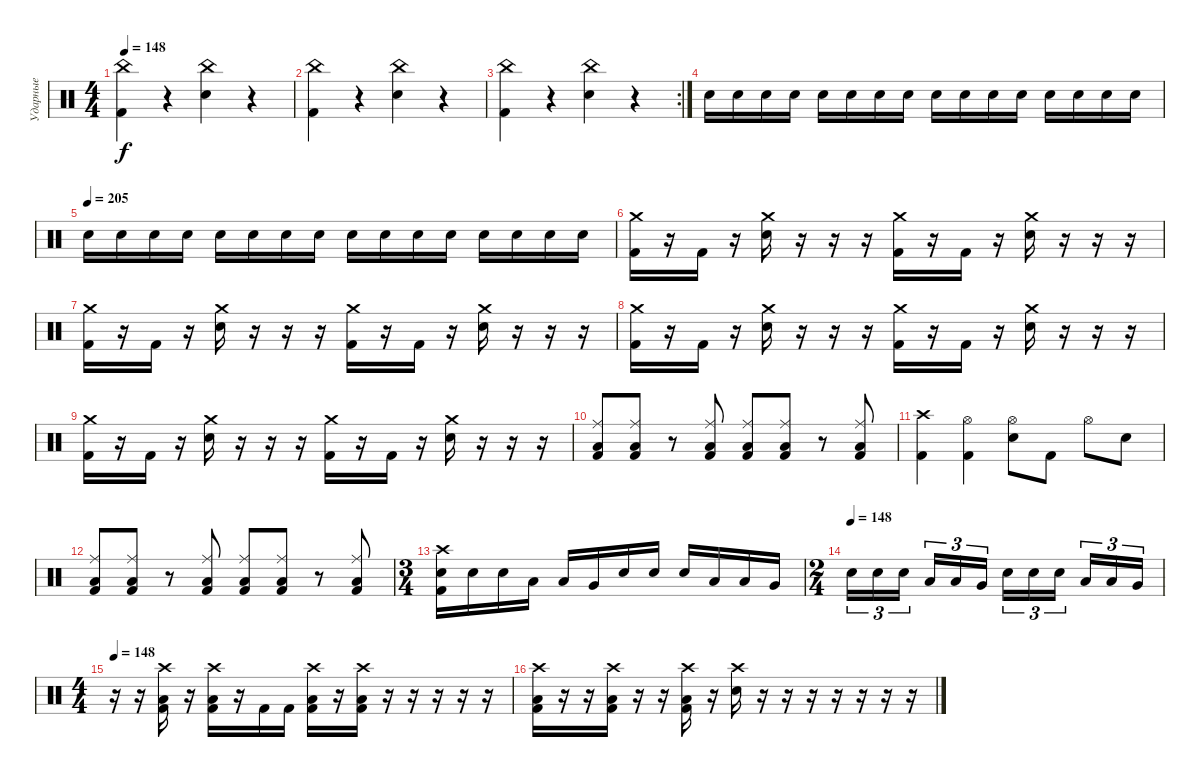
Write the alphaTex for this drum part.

\track ("Ударные" "Ударные") {instrument percussion}
\staff {score}
\articulation defaults
\ts (4 4)
\tempo 148
\clef neutral
\ks c
("China (hit)" "Kick (hit) 2").4{dy f} r.4 ("China (hit)" "Electric Snare (hit)").4 r.4 |
("China (hit)" "Kick (hit) 2").4 r.4 ("China (hit)" "Electric Snare (hit)").4 r.4 |
\rc 2
("China (hit)" "Kick (hit) 2").4 r.4 ("China (hit)" "Electric Snare (hit)").4 r.4 |
"Electric Snare (hit)".16 "Electric Snare (hit)".16 "Electric Snare (hit)".16 "Electric Snare (hit)".16 "Electric Snare (hit)".16 "Electric Snare (hit)".16 "Electric Snare (hit)".16 "Electric Snare (hit)".16 "Electric Snare (hit)".16 "Electric Snare (hit)".16 "Electric Snare (hit)".16 "Electric Snare (hit)".16 "Electric Snare (hit)".16 "Electric Snare (hit)".16 "Electric Snare (hit)".16 "Electric Snare (hit)".16 |
\tempo (205)
"Electric Snare (hit)".16 "Electric Snare (hit)".16 "Electric Snare (hit)".16 "Electric Snare (hit)".16 "Electric Snare (hit)".16 "Electric Snare (hit)".16 "Electric Snare (hit)".16 "Electric Snare (hit)".16 "Electric Snare (hit)".16 "Electric Snare (hit)".16 "Electric Snare (hit)".16 "Electric Snare (hit)".16 "Electric Snare (hit)".16 "Electric Snare (hit)".16 "Electric Snare (hit)".16 "Electric Snare (hit)".16 |
("Crash medium (hit)" "Kick (hit) 2").16 r.16 "Kick (hit) 2".16 r.16 ("Crash medium (hit)" "Electric Snare (hit)").16 r.16 r.16 r.16 ("Crash medium (hit)" "Kick (hit) 2").16 r.16 "Kick (hit) 2".16 r.16 ("Crash medium (hit)" "Electric Snare (hit)").16 r.16 r.16 r.16 |
("Crash medium (hit)" "Kick (hit) 2").16 r.16 "Kick (hit) 2".16 r.16 ("Crash medium (hit)" "Electric Snare (hit)").16 r.16 r.16 r.16 ("Crash medium (hit)" "Kick (hit) 2").16 r.16 "Kick (hit) 2".16 r.16 ("Crash medium (hit)" "Electric Snare (hit)").16 r.16 r.16 r.16 |
("Crash medium (hit)" "Kick (hit) 2").16 r.16 "Kick (hit) 2".16 r.16 ("Crash medium (hit)" "Electric Snare (hit)").16 r.16 r.16 r.16 ("Crash medium (hit)" "Kick (hit) 2").16 r.16 "Kick (hit) 2".16 r.16 ("Crash medium (hit)" "Electric Snare (hit)").16 r.16 r.16 r.16 |
("Crash medium (hit)" "Kick (hit) 2").16 r.16 "Kick (hit) 2".16 r.16 ("Crash medium (hit)" "Electric Snare (hit)").16 r.16 r.16 r.16 ("Crash medium (hit)" "Kick (hit) 2").16 r.16 "Kick (hit) 2".16 r.16 ("Crash medium (hit)" "Electric Snare (hit)").16 r.16 r.16 r.16 |
("Ride (middle)" "Low Tom (hit)" "Kick (hit) 2").8 ("Ride (middle)" "Low Tom (hit)" "Kick (hit) 2").8 r.8 ("Ride (middle)" "Low Tom (hit)" "Kick (hit) 2").8 ("Ride (middle)" "Low Tom (hit)" "Kick (hit) 2").8 ("Ride (middle)" "Low Tom (hit)" "Kick (hit) 2").8 r.8 ("Ride (middle)" "Low Tom (hit)" "Kick (hit) 2").8 |
("Crash high (hit)" "Kick (hit) 2").4 ("Hi-Hat (open)" "Kick (hit) 2").4 ("Hi-Hat (open)" "Electric Snare (hit)").8 "Kick (hit) 2".8 "Hi-Hat (open)".8 "Electric Snare (hit)".8 |
("Ride (middle)" "Low Tom (hit)" "Kick (hit) 2").8 ("Ride (middle)" "Low Tom (hit)" "Kick (hit) 2").8 r.8 ("Ride (middle)" "Low Tom (hit)" "Kick (hit) 2").8 ("Ride (middle)" "Low Tom (hit)" "Kick (hit) 2").8 ("Ride (middle)" "Low Tom (hit)" "Kick (hit) 2").8 r.8 ("Ride (middle)" "Low Tom (hit)" "Kick (hit) 2").8 |
\ts (3 4)
("Crash high (hit)" "Electric Snare (hit)" "Kick (hit) 2").16 "Electric Snare (hit)".16 "Electric Snare (hit)".16 "Low Tom (hit)".16 "Low Tom (hit)".16 "Very Low Tom (hit)".16 "Electric Snare (hit)".16 "Electric Snare (hit)".16 "Electric Snare (hit)".16 "Low Tom (hit)".16 "Low Tom (hit)".16 "Very Low Tom (hit)".16 |
\ts (2 4)
\tempo (148)
"Electric Snare (hit)".16{tu (3 2)} "Electric Snare (hit)".16{tu (3 2)} "Electric Snare (hit)".16{tu (3 2) beam splitsecondary} "Low Tom (hit)".16{tu (3 2)} "Low Tom (hit)".16{tu (3 2)} "Very Low Tom (hit)".16{tu (3 2)} "Electric Snare (hit)".16{tu (3 2)} "Electric Snare (hit)".16{tu (3 2)} "Electric Snare (hit)".16{tu (3 2) beam splitsecondary} "Low Tom (hit)".16{tu (3 2)} "Low Tom (hit)".16{tu (3 2)} "Very Low Tom (hit)".16{tu (3 2)} |
\ts (4 4)
\tempo 148
r.16 r.16 ("Crash high (hit)" "Low Tom (hit)" "Kick (hit) 2").16 r.16 ("Crash high (hit)" "Low Tom (hit)" "Kick (hit) 2").16 r.16 "Kick (hit) 2".16 "Kick (hit) 2".16 ("Crash high (hit)" "Low Tom (hit)" "Kick (hit) 2").16 r.16 ("Crash high (hit)" "Low Tom (hit)" "Kick (hit) 2").16 r.16 r.16 r.16 r.16 r.16 |
("Crash high (hit)" "Low Tom (hit)" "Kick (hit) 2").16 r.16 r.16 ("Crash high (hit)" "Low Tom (hit)" "Kick (hit) 2").16 r.16 r.16 ("Crash high (hit)" "Low Tom (hit)" "Kick (hit) 2").16 r.16 ("Crash high (hit)" "Electric Snare (hit)").16 r.16 r.16 r.16 r.16 r.16 r.16 r.16
